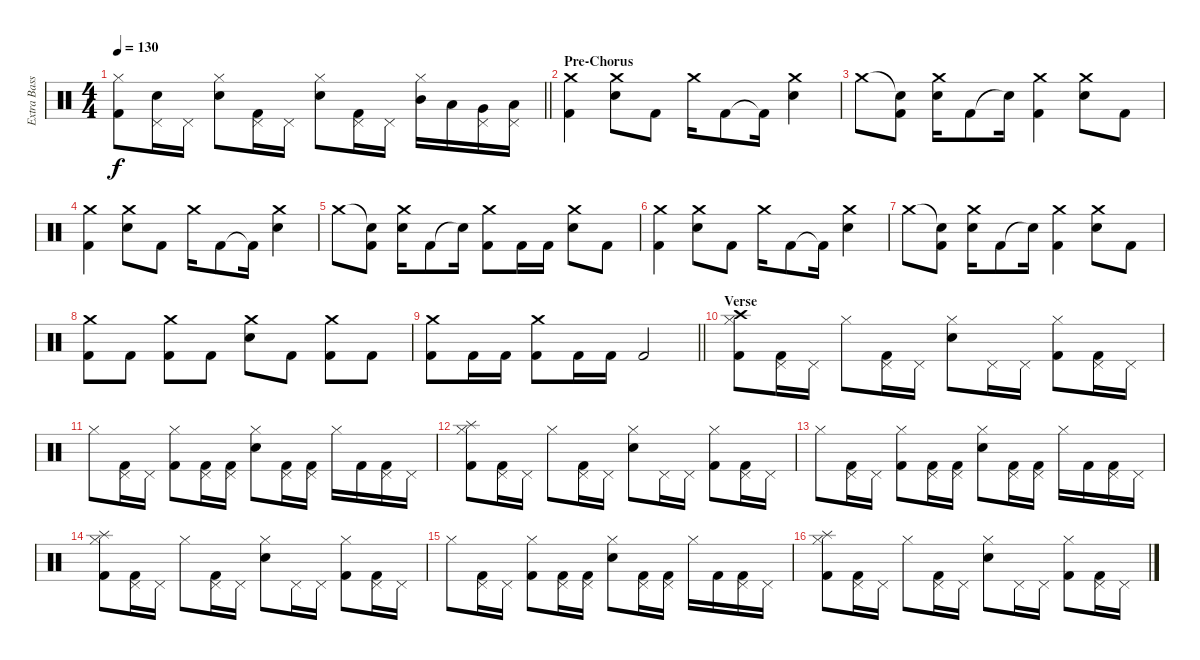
\track ("Extra BassDrum" "Extra Bass") {instrument percussion}
\staff {score}
\articulation defaults
\ts (4 4)
\tempo 130
\clef neutral
\barLineRight lightlight
\ks c
("Hi-Hat (closed)" "Kick (hit) 2").8{dy f} ("Pedal Hi-Hat (hit)" "Snare (hit) 2").16 "Pedal Hi-Hat (hit)".16 ("Hi-Hat (closed)" "Snare (hit) 2").8 ("Pedal Hi-Hat (hit)" "Kick (hit) 2").16 "Pedal Hi-Hat (hit)".16 ("Hi-Hat (closed)" "Snare (hit) 2").8 ("Pedal Hi-Hat (hit)" "Kick (hit) 2").16 "Pedal Hi-Hat (hit)".16 ("Hi-Hat (closed)" "Mid Tom (hit)").16 "Low Tom (hit)".16 ("Pedal Hi-Hat (hit)" "Very Low Tom (hit)").16 ("Pedal Hi-Hat (hit)" "Low Floor Tom (hit)").16 |
\section ("" "Pre-Chorus")
("Crash medium (hit)" "Kick (hit) 2").4 ("Crash medium (hit)" "Snare (hit) 2").8 "Kick (hit) 2".8 "Crash medium (hit)".16 "Kick (hit) 2".8 "Kick (hit) 2"{t}.16 ("Crash medium (hit)" "Snare (hit) 2").4 |
"Crash medium (hit)".8 ("Snare (hit)"{t} "Kick (hit) 2").8 ("Crash medium (hit)" "Snare (hit) 2").16 "Kick (hit) 2".8 "Snare (hit)"{t}.16 ("Crash medium (hit)" "Kick (hit) 2").4 ("Crash medium (hit)" "Snare (hit) 2").8 "Kick (hit) 2".8 |
("Crash medium (hit)" "Kick (hit) 2").4 ("Crash medium (hit)" "Snare (hit) 2").8 "Kick (hit) 2".8 "Crash medium (hit)".16 "Kick (hit) 2".8 "Kick (hit) 2"{t}.16 ("Crash medium (hit)" "Snare (hit) 2").4 |
"Crash medium (hit)".8 ("Snare (hit)"{t} "Kick (hit) 2").8 ("Crash medium (hit)" "Snare (hit) 2").16 "Kick (hit) 2".8 "Snare (hit)"{t}.16 ("Crash medium (hit)" "Kick (hit) 2").8 "Kick (hit) 2".16 "Kick (hit) 2".16 ("Crash medium (hit)" "Snare (hit) 2").8 "Kick (hit) 2".8 |
("Crash medium (hit)" "Kick (hit) 2").4 ("Crash medium (hit)" "Snare (hit) 2").8 "Kick (hit) 2".8 "Crash medium (hit)".16 "Kick (hit) 2".8 "Kick (hit) 2"{t}.16 ("Crash medium (hit)" "Snare (hit) 2").4 |
"Crash medium (hit)".8 ("Snare (hit)"{t} "Kick (hit) 2").8 ("Crash medium (hit)" "Snare (hit) 2").16 "Kick (hit) 2".8 "Snare (hit)"{t}.16 ("Crash medium (hit)" "Kick (hit) 2").4 ("Crash medium (hit)" "Snare (hit) 2").8 "Kick (hit) 2".8 |
("Crash medium (hit)" "Kick (hit) 2").8 "Kick (hit) 2".8 ("Crash medium (hit)" "Kick (hit) 2").8 "Kick (hit) 2".8 ("Crash medium (hit)" "Snare (hit) 2").8 "Kick (hit) 2".8 ("Crash medium (hit)" "Kick (hit) 2").8 "Kick (hit) 2".8 |
\barLineRight lightlight
("Crash medium (hit)" "Kick (hit) 2").8 "Kick (hit) 2".16 "Kick (hit) 2".16 ("Crash medium (hit)" "Kick (hit) 2").8 "Kick (hit) 2".16 "Kick (hit) 2".16 "Kick (hit) 2".2 |
\section ("" "Verse")
("Crash high (hit)" "Hi-Hat (closed)" "Kick (hit) 2").8 ("Pedal Hi-Hat (hit)" "Kick (hit) 2").16 "Pedal Hi-Hat (hit)".16 "Hi-Hat (closed)".8 ("Pedal Hi-Hat (hit)" "Kick (hit) 2").16 "Pedal Hi-Hat (hit)".16 ("Hi-Hat (closed)" "Snare (hit) 2").8 "Pedal Hi-Hat (hit)".16 "Pedal Hi-Hat (hit)".16 ("Hi-Hat (closed)" "Kick (hit) 2").8 ("Pedal Hi-Hat (hit)" "Kick (hit) 2").16 "Pedal Hi-Hat (hit)".16 |
"Hi-Hat (closed)".8 ("Pedal Hi-Hat (hit)" "Kick (hit) 2").16 "Pedal Hi-Hat (hit)".16 ("Hi-Hat (closed)" "Kick (hit) 2").8 ("Pedal Hi-Hat (hit)" "Kick (hit) 2").16 ("Pedal Hi-Hat (hit)" "Kick (hit) 2").16 ("Hi-Hat (closed)" "Snare (hit) 2").8 ("Pedal Hi-Hat (hit)" "Kick (hit) 2").16 ("Pedal Hi-Hat (hit)" "Kick (hit) 2").16 "Hi-Hat (closed)".16 "Kick (hit) 2".16 ("Pedal Hi-Hat (hit)" "Kick (hit) 2").16 "Pedal Hi-Hat (hit)".16 |
("Splash (hit)" "Hi-Hat (closed)" "Kick (hit) 2").8 ("Pedal Hi-Hat (hit)" "Kick (hit) 2").16 "Pedal Hi-Hat (hit)".16 "Hi-Hat (closed)".8 ("Pedal Hi-Hat (hit)" "Kick (hit) 2").16 "Pedal Hi-Hat (hit)".16 ("Hi-Hat (closed)" "Snare (hit) 2").8 "Pedal Hi-Hat (hit)".16 "Pedal Hi-Hat (hit)".16 ("Hi-Hat (closed)" "Kick (hit) 2").8 ("Pedal Hi-Hat (hit)" "Kick (hit) 2").16 "Pedal Hi-Hat (hit)".16 |
"Hi-Hat (closed)".8 ("Pedal Hi-Hat (hit)" "Kick (hit) 2").16 "Pedal Hi-Hat (hit)".16 ("Hi-Hat (closed)" "Kick (hit) 2").8 ("Pedal Hi-Hat (hit)" "Kick (hit) 2").16 ("Pedal Hi-Hat (hit)" "Kick (hit) 2").16 ("Hi-Hat (closed)" "Snare (hit) 2").8 ("Pedal Hi-Hat (hit)" "Kick (hit) 2").16 ("Pedal Hi-Hat (hit)" "Kick (hit) 2").16 "Hi-Hat (closed)".16 "Kick (hit) 2".16 ("Pedal Hi-Hat (hit)" "Kick (hit) 2").16 "Pedal Hi-Hat (hit)".16 |
("Splash (hit)" "Hi-Hat (closed)" "Kick (hit) 2").8 ("Pedal Hi-Hat (hit)" "Kick (hit) 2").16 "Pedal Hi-Hat (hit)".16 "Hi-Hat (closed)".8 ("Pedal Hi-Hat (hit)" "Kick (hit) 2").16 "Pedal Hi-Hat (hit)".16 ("Hi-Hat (closed)" "Snare (hit) 2").8 "Pedal Hi-Hat (hit)".16 "Pedal Hi-Hat (hit)".16 ("Hi-Hat (closed)" "Kick (hit) 2").8 ("Pedal Hi-Hat (hit)" "Kick (hit) 2").16 "Pedal Hi-Hat (hit)".16 |
"Hi-Hat (closed)".8 ("Pedal Hi-Hat (hit)" "Kick (hit) 2").16 "Pedal Hi-Hat (hit)".16 ("Hi-Hat (closed)" "Kick (hit) 2").8 ("Pedal Hi-Hat (hit)" "Kick (hit) 2").16 ("Pedal Hi-Hat (hit)" "Kick (hit) 2").16 ("Hi-Hat (closed)" "Snare (hit) 2").8 ("Pedal Hi-Hat (hit)" "Kick (hit) 2").16 ("Pedal Hi-Hat (hit)" "Kick (hit) 2").16 "Hi-Hat (closed)".16 "Kick (hit) 2".16 ("Pedal Hi-Hat (hit)" "Kick (hit) 2").16 "Pedal Hi-Hat (hit)".16 |
("Splash (hit)" "Hi-Hat (closed)" "Kick (hit) 2").8 ("Pedal Hi-Hat (hit)" "Kick (hit) 2").16 "Pedal Hi-Hat (hit)".16 "Hi-Hat (closed)".8 ("Pedal Hi-Hat (hit)" "Kick (hit) 2").16 "Pedal Hi-Hat (hit)".16 ("Hi-Hat (closed)" "Snare (hit) 2").8 "Pedal Hi-Hat (hit)".16 "Pedal Hi-Hat (hit)".16 ("Hi-Hat (closed)" "Kick (hit) 2").8 ("Pedal Hi-Hat (hit)" "Kick (hit) 2").16 "Pedal Hi-Hat (hit)".16
